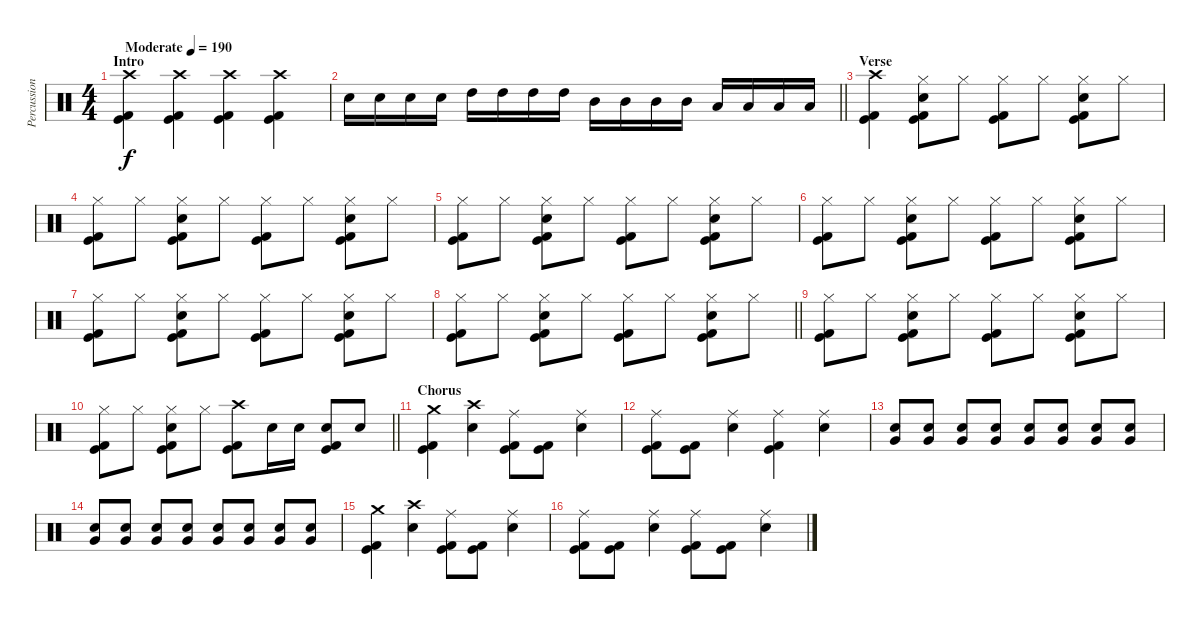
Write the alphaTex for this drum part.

\track ("Percussion" "Percussion") {instrument percussion}
\staff {score}
\articulation defaults
\ts (4 4)
\section ("" "Intro")
\tempo (190 "Moderate")
\clef neutral
\ks c
("Crash high (hit)" "Kick (hit)" "Kick (hit) 2").4{dy f} ("Crash high (hit)" "Kick (hit)" "Kick (hit) 2").4 ("Crash high (hit)" "Kick (hit)" "Kick (hit) 2").4 ("Crash high (hit)" "Kick (hit)" "Kick (hit) 2").4 |
\barLineRight lightlight "Electric Snare (hit)".16 "Electric Snare (hit)".16 "Electric Snare (hit)".16 "Electric Snare (hit)".16 "High Tom (hit)".16 "High Tom (hit)".16 "High Tom (hit)".16 "High Tom (hit)".16 "Mid Tom (hit)".16 "Mid Tom (hit)".16 "Mid Tom (hit)".16 "Mid Tom (hit)".16 "Low Tom (hit)".16 "Low Tom (hit)".16 "Low Tom (hit)".16 "Low Tom (hit)".16
|
\section ("" "Verse")
("Crash high (hit)" "Kick (hit)" "Kick (hit) 2").4 ("Hi-Hat (closed)" "Electric Snare (hit)" "Kick (hit)" "Kick (hit) 2").8 "Hi-Hat (closed)".8 ("Hi-Hat (closed)" "Kick (hit)" "Kick (hit) 2").8 "Hi-Hat (closed)".8 ("Hi-Hat (closed)" "Electric Snare (hit)" "Kick (hit)" "Kick (hit) 2").8 "Hi-Hat (closed)".8 |
("Hi-Hat (closed)" "Kick (hit)" "Kick (hit) 2").8 "Hi-Hat (closed)".8 ("Hi-Hat (closed)" "Electric Snare (hit)" "Kick (hit)" "Kick (hit) 2").8 "Hi-Hat (closed)".8 ("Hi-Hat (closed)" "Kick (hit)" "Kick (hit) 2").8 "Hi-Hat (closed)".8 ("Hi-Hat (closed)" "Electric Snare (hit)" "Kick (hit)" "Kick (hit) 2").8 "Hi-Hat (closed)".8 |
("Hi-Hat (closed)" "Kick (hit)" "Kick (hit) 2").8 "Hi-Hat (closed)".8 ("Hi-Hat (closed)" "Electric Snare (hit)" "Kick (hit)" "Kick (hit) 2").8 "Hi-Hat (closed)".8 ("Hi-Hat (closed)" "Kick (hit)" "Kick (hit) 2").8 "Hi-Hat (closed)".8 ("Hi-Hat (closed)" "Electric Snare (hit)" "Kick (hit)" "Kick (hit) 2").8 "Hi-Hat (closed)".8 |
("Hi-Hat (closed)" "Kick (hit)" "Kick (hit) 2").8 "Hi-Hat (closed)".8 ("Hi-Hat (closed)" "Electric Snare (hit)" "Kick (hit)" "Kick (hit) 2").8 "Hi-Hat (closed)".8 ("Hi-Hat (closed)" "Kick (hit)" "Kick (hit) 2").8 "Hi-Hat (closed)".8 ("Hi-Hat (closed)" "Electric Snare (hit)" "Kick (hit)" "Kick (hit) 2").8 "Hi-Hat (closed)".8 |
("Hi-Hat (closed)" "Kick (hit)" "Kick (hit) 2").8 "Hi-Hat (closed)".8 ("Hi-Hat (closed)" "Electric Snare (hit)" "Kick (hit)" "Kick (hit) 2").8 "Hi-Hat (closed)".8 ("Hi-Hat (closed)" "Kick (hit)" "Kick (hit) 2").8 "Hi-Hat (closed)".8 ("Hi-Hat (closed)" "Electric Snare (hit)" "Kick (hit)" "Kick (hit) 2").8 "Hi-Hat (closed)".8 |
\barLineRight lightlight
("Hi-Hat (closed)" "Kick (hit)" "Kick (hit) 2").8 "Hi-Hat (closed)".8 ("Hi-Hat (closed)" "Electric Snare (hit)" "Kick (hit)" "Kick (hit) 2").8 "Hi-Hat (closed)".8 ("Hi-Hat (closed)" "Kick (hit)" "Kick (hit) 2").8 "Hi-Hat (closed)".8 ("Hi-Hat (closed)" "Electric Snare (hit)" "Kick (hit)" "Kick (hit) 2").8 "Hi-Hat (closed)".8 |
("Hi-Hat (closed)" "Kick (hit)" "Kick (hit) 2").8 "Hi-Hat (closed)".8 ("Hi-Hat (closed)" "Electric Snare (hit)" "Kick (hit)" "Kick (hit) 2").8 "Hi-Hat (closed)".8 ("Hi-Hat (closed)" "Kick (hit)" "Kick (hit) 2").8 "Hi-Hat (closed)".8 ("Hi-Hat (closed)" "Electric Snare (hit)" "Kick (hit)" "Kick (hit) 2").8 "Hi-Hat (closed)".8 |
\barLineRight lightlight
("Hi-Hat (closed)" "Kick (hit)" "Kick (hit) 2").8 "Hi-Hat (closed)".8 ("Hi-Hat (closed)" "Electric Snare (hit)" "Kick (hit)" "Kick (hit) 2").8 "Hi-Hat (closed)".8 ("Crash high (hit)" "Kick (hit)" "Kick (hit) 2").8 "Electric Snare (hit)".16 "Electric Snare (hit)".16 ("Electric Snare (hit)" "Kick (hit)" "Kick (hit) 2").8 "Electric Snare (hit)".8 |
\section ("" "Chorus")
("Crash medium (hit)" "Kick (hit)" "Kick (hit) 2").4 ("Crash high (hit)" "Electric Snare (hit)").4 ("Ride (middle)" "Kick (hit)" "Kick (hit) 2").8 ("Kick (hit)" "Kick (hit) 2").8 ("Ride (middle)" "Electric Snare (hit)").4 |
("Ride (middle)" "Kick (hit)" "Kick (hit) 2").8 ("Kick (hit)" "Kick (hit) 2").8 ("Ride (middle)" "Electric Snare (hit)").4 ("Ride (middle)" "Kick (hit)" "Kick (hit) 2").4 ("Ride (middle)" "Electric Snare (hit)").4 |
("Very Low Tom (hit)" "Electric Snare (hit)").8 ("Very Low Tom (hit)" "Electric Snare (hit)").8 ("Very Low Tom (hit)" "Electric Snare (hit)").8 ("Very Low Tom (hit)" "Electric Snare (hit)").8 ("Very Low Tom (hit)" "Electric Snare (hit)").8 ("Very Low Tom (hit)" "Electric Snare (hit)").8 ("Very Low Tom (hit)" "Electric Snare (hit)").8 ("Very Low Tom (hit)" "Electric Snare (hit)").8 |
("Very Low Tom (hit)" "Electric Snare (hit)").8 ("Very Low Tom (hit)" "Electric Snare (hit)").8 ("Very Low Tom (hit)" "Electric Snare (hit)").8 ("Very Low Tom (hit)" "Electric Snare (hit)").8 ("Very Low Tom (hit)" "Electric Snare (hit)").8 ("Very Low Tom (hit)" "Electric Snare (hit)").8 ("Very Low Tom (hit)" "Electric Snare (hit)").8 ("Very Low Tom (hit)" "Electric Snare (hit)").8 |
("Crash medium (hit)" "Kick (hit)" "Kick (hit) 2").4 ("Crash high (hit)" "Electric Snare (hit)").4 ("Ride (middle)" "Kick (hit)" "Kick (hit) 2").8 ("Kick (hit)" "Kick (hit) 2").8 ("Ride (middle)" "Electric Snare (hit)").4 |
("Ride (middle)" "Kick (hit)" "Kick (hit) 2").8 ("Kick (hit)" "Kick (hit) 2").8 ("Ride (middle)" "Electric Snare (hit)").4 ("Ride (middle)" "Kick (hit)" "Kick (hit) 2").8 ("Kick (hit)" "Kick (hit) 2").8 ("Ride (middle)" "Electric Snare (hit)").4
